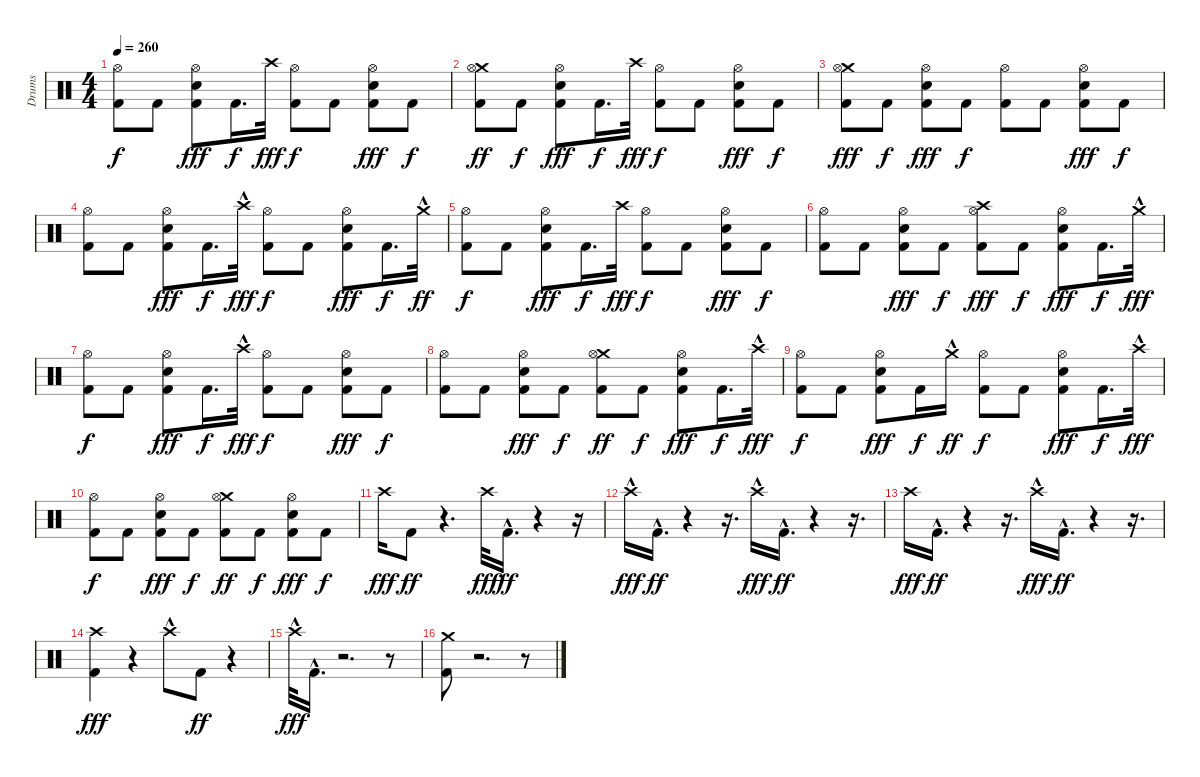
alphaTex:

\track ("Drums" "Drums") {instrument percussion}
\staff {score}
\articulation defaults
\ts (4 4)
\tempo 260
\clef neutral
\ks c
("Hi-Hat (open)" "Kick (hit) 2").8{dy f} "Kick (hit) 2".8 ("Hi-Hat (open)" "Snare (hit) 2" "Kick (hit) 2").8{dy fff} "Kick (hit) 2".16{d dy f} "Crash high (hit)".32{dy fff} ("Hi-Hat (open)" "Kick (hit) 2").8{dy f} "Kick (hit) 2".8 ("Hi-Hat (open)" "Snare (hit) 2" "Kick (hit) 2").8{dy fff} "Kick (hit) 2".8{dy f} |
("Crash medium (hit)" "Hi-Hat (open)" "Kick (hit) 2").8{dy ff} "Kick (hit) 2".8{dy f} ("Hi-Hat (open)" "Snare (hit) 2" "Kick (hit) 2").8{dy fff} "Kick (hit) 2".16{d dy f} "Crash high (hit)".32{dy fff} ("Hi-Hat (open)" "Kick (hit) 2").8{dy f} "Kick (hit) 2".8 ("Hi-Hat (open)" "Snare (hit) 2" "Kick (hit) 2").8{dy fff} "Kick (hit) 2".8{dy f} |
("Crash medium (hit)" "Hi-Hat (open)" "Kick (hit) 2").8{dy fff} "Kick (hit) 2".8{dy f} ("Hi-Hat (open)" "Snare (hit) 2" "Kick (hit) 2").8{dy fff} "Kick (hit) 2".8{dy f} ("Hi-Hat (open)" "Kick (hit) 2").8 "Kick (hit) 2".8 ("Hi-Hat (open)" "Snare (hit) 2" "Kick (hit) 2").8{dy fff} "Kick (hit) 2".8{dy f} |
("Hi-Hat (open)" "Kick (hit) 2").8 "Kick (hit) 2".8 ("Hi-Hat (open)" "Snare (hit) 2" "Kick (hit) 2").8{dy fff} "Kick (hit) 2".16{d dy f} "Crash high (hit)"{hac}.32{dy fff} ("Hi-Hat (open)" "Kick (hit) 2").8{dy f} "Kick (hit) 2".8 ("Hi-Hat (open)" "Snare (hit) 2" "Kick (hit) 2").8{dy fff} "Kick (hit) 2".16{d dy f} "Crash medium (hit)"{hac}.32{dy ff} |
("Hi-Hat (open)" "Kick (hit) 2").8{dy f} "Kick (hit) 2".8 ("Hi-Hat (open)" "Snare (hit) 2" "Kick (hit) 2").8{dy fff} "Kick (hit) 2".16{d dy f} "Crash high (hit)".32{dy fff} ("Hi-Hat (open)" "Kick (hit) 2").8{dy f} "Kick (hit) 2".8 ("Hi-Hat (open)" "Snare (hit) 2" "Kick (hit) 2").8{dy fff} "Kick (hit) 2".8{dy f} |
("Hi-Hat (open)" "Kick (hit) 2").8 "Kick (hit) 2".8 ("Hi-Hat (open)" "Snare (hit) 2" "Kick (hit) 2").8{dy fff} "Kick (hit) 2".8{dy f} ("Crash high (hit)" "Hi-Hat (open)" "Kick (hit) 2").8{dy fff} "Kick (hit) 2".8{dy f} ("Hi-Hat (open)" "Snare (hit) 2" "Kick (hit) 2").8{dy fff} "Kick (hit) 2".16{d dy f} "Crash medium (hit)"{hac}.32{dy fff} |
("Hi-Hat (open)" "Kick (hit) 2").8{dy f} "Kick (hit) 2".8 ("Hi-Hat (open)" "Snare (hit) 2" "Kick (hit) 2").8{dy fff} "Kick (hit) 2".16{d dy f} "Crash high (hit)"{hac}.32{dy fff} ("Hi-Hat (open)" "Kick (hit) 2").8{dy f} "Kick (hit) 2".8 ("Hi-Hat (open)" "Snare (hit) 2" "Kick (hit) 2").8{dy fff} "Kick (hit) 2".8{dy f} |
("Hi-Hat (open)" "Kick (hit) 2").8 "Kick (hit) 2".8 ("Hi-Hat (open)" "Snare (hit) 2" "Kick (hit) 2").8{dy fff} "Kick (hit) 2".8{dy f} ("Crash medium (hit)" "Hi-Hat (open)" "Kick (hit) 2").8{dy ff} "Kick (hit) 2".8{dy f} ("Hi-Hat (open)" "Snare (hit) 2" "Kick (hit) 2").8{dy fff} "Kick (hit) 2".16{d dy f} "Crash high (hit)"{hac}.32{dy fff} |
("Hi-Hat (open)" "Kick (hit) 2").8{dy f} "Kick (hit) 2".8 ("Hi-Hat (open)" "Snare (hit) 2" "Kick (hit) 2").8{dy fff} "Kick (hit) 2".16{dy f} "Crash medium (hit)"{hac}.16{dy ff} ("Hi-Hat (open)" "Kick (hit) 2").8{dy f} "Kick (hit) 2".8 ("Hi-Hat (open)" "Snare (hit) 2" "Kick (hit) 2").8{dy fff} "Kick (hit) 2".16{d dy f} "Crash high (hit)"{hac}.32{dy fff} |
("Hi-Hat (open)" "Kick (hit) 2").8{dy f} "Kick (hit) 2".8 ("Hi-Hat (open)" "Snare (hit) 2" "Kick (hit) 2").8{dy fff} "Kick (hit) 2".8{dy f} ("Crash medium (hit)" "Hi-Hat (open)" "Kick (hit) 2").8{dy ff} "Kick (hit) 2".8{dy f} ("Hi-Hat (open)" "Snare (hit) 2" "Kick (hit) 2").8{dy fff} "Kick (hit) 2".8{dy f} |
"Crash high (hit)".16{dy fff} "Kick (hit) 2".8{dy ff} r.4{d} "Crash high (hit)".32{dy fff} "Kick (hit) 2"{hac}.16{d dy ff} r.4 r.16 |
"Crash high (hit)"{hac}.16{dy fff} "Kick (hit) 2"{hac}.16{d dy ff} r.4 r.16{d} "Crash high (hit)"{hac}.16{dy fff} "Kick (hit) 2"{hac}.16{d dy ff} r.4 r.16{d} |
"Crash high (hit)".16{dy fff} "Kick (hit) 2"{hac}.16{d dy ff} r.4 r.16{d} "Crash high (hit)"{hac}.16{dy fff} "Kick (hit) 2"{hac}.16{d dy ff} r.4 r.16{d} |
("Kick (hit) 2" "Crash high (hit)").4{dy fff} r.4 "Crash high (hit)"{hac}.8 "Kick (hit) 2".8{dy ff} r.4 |
"Crash high (hit)"{hac}.32{dy fff} "Kick (hit) 2"{hac}.16{d} r.2{d} r.8 |
("Crash medium (hit)" "Kick (hit) 2").8 r.2{d} r.8
